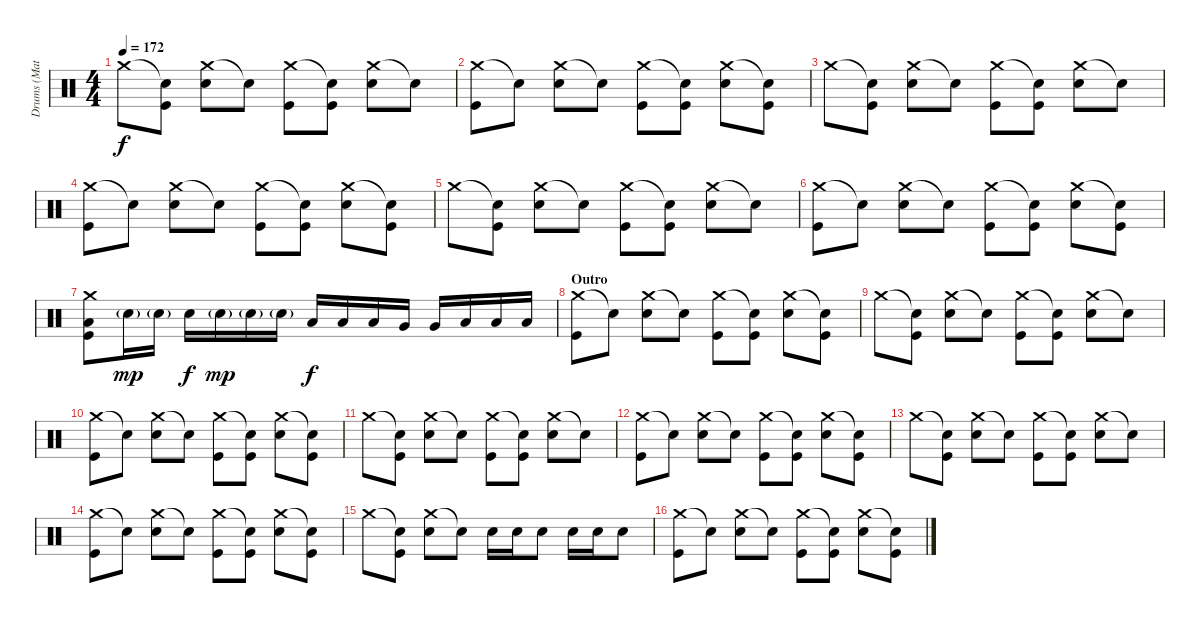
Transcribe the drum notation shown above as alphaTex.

\track ("Drums (Matt)" "Drums (Mat") {instrument percussion}
\staff {score}
\articulation defaults
\ts (4 4)
\tempo 172
\clef neutral
\ks c "Crash medium (hit)".8{dy f}
("Snare (hit)"{t} "Kick (hit)").8 ("Crash medium (hit)" "Electric Snare (hit)").8 "Snare (hit)"{t}.8 ("Crash medium (hit)" "Kick (hit)").8 ("Snare (hit)"{t} "Kick (hit)").8 ("Crash medium (hit)" "Electric Snare (hit)").8 "Snare (hit)"{t}.8 |
("Crash medium (hit)" "Kick (hit)").8 "Snare (hit)"{t}.8 ("Crash medium (hit)" "Electric Snare (hit)").8 "Snare (hit)"{t}.8 ("Crash medium (hit)" "Kick (hit)").8 ("Snare (hit)"{t} "Kick (hit)").8 ("Crash medium (hit)" "Electric Snare (hit)").8 ("Snare (hit)"{t} "Kick (hit)").8 |
"Crash medium (hit)".8 ("Snare (hit)"{t} "Kick (hit)").8 ("Crash medium (hit)" "Electric Snare (hit)").8 "Snare (hit)"{t}.8 ("Crash medium (hit)" "Kick (hit)").8 ("Snare (hit)"{t} "Kick (hit)").8 ("Crash medium (hit)" "Electric Snare (hit)").8 "Snare (hit)"{t}.8 |
("Crash medium (hit)" "Kick (hit)").8 "Snare (hit)"{t}.8 ("Crash medium (hit)" "Electric Snare (hit)").8 "Snare (hit)"{t}.8 ("Crash medium (hit)" "Kick (hit)").8 ("Snare (hit)"{t} "Kick (hit)").8 ("Crash medium (hit)" "Electric Snare (hit)").8 ("Snare (hit)"{t} "Kick (hit)").8 |
"Crash medium (hit)".8 ("Snare (hit)"{t} "Kick (hit)").8 ("Crash medium (hit)" "Electric Snare (hit)").8 "Snare (hit)"{t}.8 ("Crash medium (hit)" "Kick (hit)").8 ("Snare (hit)"{t} "Kick (hit)").8 ("Crash medium (hit)" "Electric Snare (hit)").8 "Snare (hit)"{t}.8 |
("Crash medium (hit)" "Kick (hit)").8 "Snare (hit)"{t}.8 ("Crash medium (hit)" "Electric Snare (hit)").8 "Snare (hit)"{t}.8 ("Crash medium (hit)" "Kick (hit)").8 ("Snare (hit)"{t} "Kick (hit)").8 ("Crash medium (hit)" "Electric Snare (hit)").8 ("Snare (hit)"{t} "Kick (hit)").8 |
("Crash medium (hit)" "Low Tom (hit)" "Kick (hit)").8 "Electric Snare (hit)"{g}.16{dy mp} "Electric Snare (hit)"{g}.16 "Electric Snare (hit)".16{dy f} "Electric Snare (hit)"{g}.16{dy mp} "Electric Snare (hit)"{g}.16 "Electric Snare (hit)"{g}.16 "Low Tom (hit)".16{dy f} "Low Tom (hit)".16 "Low Tom (hit)".16 "Very Low Tom (hit)".16 "Very Low Tom (hit)".16 "Low Floor Tom (hit)".16 "Low Floor Tom (hit)".16 "Low Floor Tom (hit)".16 |
\section ("" "Outro")
("Crash medium (hit)" "Kick (hit)").8 "Snare (hit)"{t}.8 ("Crash medium (hit)" "Electric Snare (hit)").8 "Snare (hit)"{t}.8 ("Crash medium (hit)" "Kick (hit)").8 ("Snare (hit)"{t} "Kick (hit)").8 ("Crash medium (hit)" "Electric Snare (hit)").8 ("Snare (hit)"{t} "Kick (hit)").8 |
"Crash medium (hit)".8 ("Snare (hit)"{t} "Kick (hit)").8 ("Crash medium (hit)" "Electric Snare (hit)").8 "Snare (hit)"{t}.8 ("Crash medium (hit)" "Kick (hit)").8 ("Snare (hit)"{t} "Kick (hit)").8 ("Crash medium (hit)" "Electric Snare (hit)").8 "Snare (hit)"{t}.8 |
("Crash medium (hit)" "Kick (hit)").8 "Snare (hit)"{t}.8 ("Crash medium (hit)" "Electric Snare (hit)").8 "Snare (hit)"{t}.8 ("Crash medium (hit)" "Kick (hit)").8 ("Snare (hit)"{t} "Kick (hit)").8 ("Crash medium (hit)" "Electric Snare (hit)").8 ("Snare (hit)"{t} "Kick (hit)").8 |
"Crash medium (hit)".8 ("Snare (hit)"{t} "Kick (hit)").8 ("Crash medium (hit)" "Electric Snare (hit)").8 "Snare (hit)"{t}.8 ("Crash medium (hit)" "Kick (hit)").8 ("Snare (hit)"{t} "Kick (hit)").8 ("Crash medium (hit)" "Electric Snare (hit)").8 "Snare (hit)"{t}.8 |
("Crash medium (hit)" "Kick (hit)").8 "Snare (hit)"{t}.8 ("Crash medium (hit)" "Electric Snare (hit)").8 "Snare (hit)"{t}.8 ("Crash medium (hit)" "Kick (hit)").8 ("Snare (hit)"{t} "Kick (hit)").8 ("Crash medium (hit)" "Electric Snare (hit)").8 ("Snare (hit)"{t} "Kick (hit)").8 |
"Crash medium (hit)".8 ("Snare (hit)"{t} "Kick (hit)").8 ("Crash medium (hit)" "Electric Snare (hit)").8 "Snare (hit)"{t}.8 ("Crash medium (hit)" "Kick (hit)").8 ("Snare (hit)"{t} "Kick (hit)").8 ("Crash medium (hit)" "Electric Snare (hit)").8 "Snare (hit)"{t}.8 |
("Crash medium (hit)" "Kick (hit)").8 "Snare (hit)"{t}.8 ("Crash medium (hit)" "Electric Snare (hit)").8 "Snare (hit)"{t}.8 ("Crash medium (hit)" "Kick (hit)").8 ("Snare (hit)"{t} "Kick (hit)").8 ("Crash medium (hit)" "Electric Snare (hit)").8 ("Snare (hit)"{t} "Kick (hit)").8 |
"Crash medium (hit)".8 ("Snare (hit)"{t} "Kick (hit)").8 ("Crash medium (hit)" "Electric Snare (hit)").8 "Snare (hit)"{t}.8 "Electric Snare (hit)".16 "Electric Snare (hit)".16 "Electric Snare (hit)".8 "Electric Snare (hit)".16 "Electric Snare (hit)".16 "Electric Snare (hit)".8 |
("Crash medium (hit)" "Kick (hit)").8 "Snare (hit)"{t}.8 ("Crash medium (hit)" "Electric Snare (hit)").8 "Snare (hit)"{t}.8 ("Crash medium (hit)" "Kick (hit)").8 ("Snare (hit)"{t} "Kick (hit)").8 ("Crash medium (hit)" "Electric Snare (hit)").8 ("Snare (hit)"{t} "Kick (hit)").8
